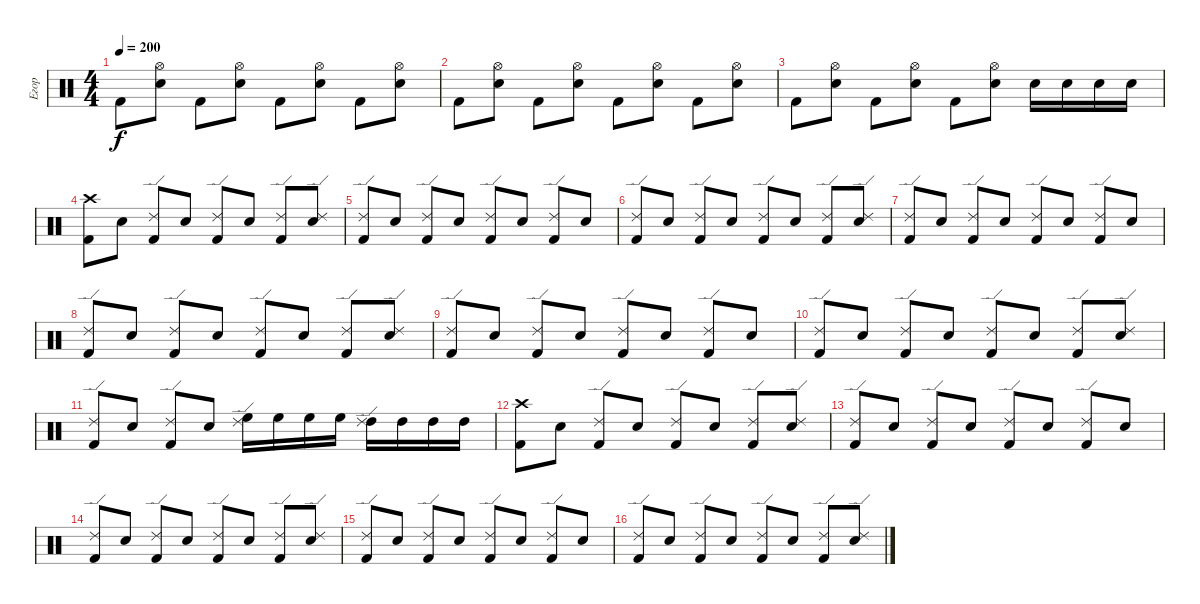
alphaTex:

\track ("Егор" "Егор") {instrument percussion}
\staff {score}
\articulation defaults
\ts (4 4)
\tempo 200
\clef neutral
\ks c "Kick (hit) 2".8{dy f}
("Hi-Hat (open)" "Snare (hit) 2").8 "Kick (hit) 2".8 ("Hi-Hat (open)" "Snare (hit) 2").8 "Kick (hit) 2".8 ("Hi-Hat (open)" "Snare (hit) 2").8 "Kick (hit) 2".8 ("Hi-Hat (open)" "Snare (hit) 2").8 |
"Kick (hit) 2".8 ("Hi-Hat (open)" "Snare (hit) 2").8 "Kick (hit) 2".8 ("Hi-Hat (open)" "Snare (hit) 2").8 "Kick (hit) 2".8 ("Hi-Hat (open)" "Snare (hit) 2").8 "Kick (hit) 2".8 ("Hi-Hat (open)" "Snare (hit) 2").8 |
"Kick (hit) 2".8 ("Hi-Hat (open)" "Snare (hit) 2").8 "Kick (hit) 2".8 ("Hi-Hat (open)" "Snare (hit) 2").8 "Kick (hit) 2".8 ("Hi-Hat (open)" "Snare (hit) 2").8 "Snare (hit) 2".16 "Snare (hit) 2".16 "Snare (hit) 2".16 "Snare (hit) 2".16 |
("Kick (hit) 2" "Crash high (hit)").8 "Snare (hit) 2".8 ("Kick (hit) 2" "Ride (edge) 2").8 "Snare (hit) 2".8 ("Kick (hit) 2" "Ride (edge) 2").8 "Snare (hit) 2".8 ("Kick (hit) 2" "Ride (edge) 2").8 ("Snare (hit) 2" "Ride (edge) 2").8 |
("Kick (hit) 2" "Ride (edge) 2").8 "Snare (hit) 2".8 ("Kick (hit) 2" "Ride (edge) 2").8 "Snare (hit) 2".8 ("Kick (hit) 2" "Ride (edge) 2").8 "Snare (hit) 2".8 ("Kick (hit) 2" "Ride (edge) 2").8 "Snare (hit) 2".8 |
("Kick (hit) 2" "Ride (edge) 2").8 "Snare (hit) 2".8 ("Kick (hit) 2" "Ride (edge) 2").8 "Snare (hit) 2".8 ("Kick (hit) 2" "Ride (edge) 2").8 "Snare (hit) 2".8 ("Kick (hit) 2" "Ride (edge) 2").8 ("Snare (hit) 2" "Ride (edge) 2").8 |
("Kick (hit) 2" "Ride (edge) 2").8 "Snare (hit) 2".8 ("Kick (hit) 2" "Ride (edge) 2").8 "Snare (hit) 2".8 ("Kick (hit) 2" "Ride (edge) 2").8 "Snare (hit) 2".8 ("Kick (hit) 2" "Ride (edge) 2").8 "Snare (hit) 2".8 |
("Kick (hit) 2" "Ride (edge) 2").8 "Snare (hit) 2".8 ("Kick (hit) 2" "Ride (edge) 2").8 "Snare (hit) 2".8 ("Kick (hit) 2" "Ride (edge) 2").8 "Snare (hit) 2".8 ("Kick (hit) 2" "Ride (edge) 2").8 ("Snare (hit) 2" "Ride (edge) 2").8 |
("Kick (hit) 2" "Ride (edge) 2").8 "Snare (hit) 2".8 ("Kick (hit) 2" "Ride (edge) 2").8 "Snare (hit) 2".8 ("Kick (hit) 2" "Ride (edge) 2").8 "Snare (hit) 2".8 ("Kick (hit) 2" "Ride (edge) 2").8 "Snare (hit) 2".8 |
("Kick (hit) 2" "Ride (edge) 2").8 "Snare (hit) 2".8 ("Kick (hit) 2" "Ride (edge) 2").8 "Snare (hit) 2".8 ("Kick (hit) 2" "Ride (edge) 2").8 "Snare (hit) 2".8 ("Kick (hit) 2" "Ride (edge) 2").8 ("Snare (hit) 2" "Ride (edge) 2").8 |
("Kick (hit) 2" "Ride (edge) 2").8 "Snare (hit) 2".8 ("Kick (hit) 2" "Ride (edge) 2").8 "Snare (hit) 2".8 ("High Floor Tom (hit)" "Ride (edge) 2").16 "High Floor Tom (hit)".16 "High Floor Tom (hit)".16 "High Floor Tom (hit)".16 ("High Tom (hit)" "Ride (edge) 2").16 "High Tom (hit)".16 "High Tom (hit)".16 "High Tom (hit)".16 |
("Kick (hit) 2" "Crash high (hit)").8 "Snare (hit) 2".8 ("Kick (hit) 2" "Ride (edge) 2").8 "Snare (hit) 2".8 ("Kick (hit) 2" "Ride (edge) 2").8 "Snare (hit) 2".8 ("Kick (hit) 2" "Ride (edge) 2").8 ("Snare (hit) 2" "Ride (edge) 2").8 |
("Kick (hit) 2" "Ride (edge) 2").8 "Snare (hit) 2".8 ("Kick (hit) 2" "Ride (edge) 2").8 "Snare (hit) 2".8 ("Kick (hit) 2" "Ride (edge) 2").8 "Snare (hit) 2".8 ("Kick (hit) 2" "Ride (edge) 2").8 "Snare (hit) 2".8 |
("Kick (hit) 2" "Ride (edge) 2").8 "Snare (hit) 2".8 ("Kick (hit) 2" "Ride (edge) 2").8 "Snare (hit) 2".8 ("Kick (hit) 2" "Ride (edge) 2").8 "Snare (hit) 2".8 ("Kick (hit) 2" "Ride (edge) 2").8 ("Snare (hit) 2" "Ride (edge) 2").8 |
("Kick (hit) 2" "Ride (edge) 2").8 "Snare (hit) 2".8 ("Kick (hit) 2" "Ride (edge) 2").8 "Snare (hit) 2".8 ("Kick (hit) 2" "Ride (edge) 2").8 "Snare (hit) 2".8 ("Kick (hit) 2" "Ride (edge) 2").8 "Snare (hit) 2".8 |
("Kick (hit) 2" "Ride (edge) 2").8 "Snare (hit) 2".8 ("Kick (hit) 2" "Ride (edge) 2").8 "Snare (hit) 2".8 ("Kick (hit) 2" "Ride (edge) 2").8 "Snare (hit) 2".8 ("Kick (hit) 2" "Ride (edge) 2").8 ("Snare (hit) 2" "Ride (edge) 2").8
